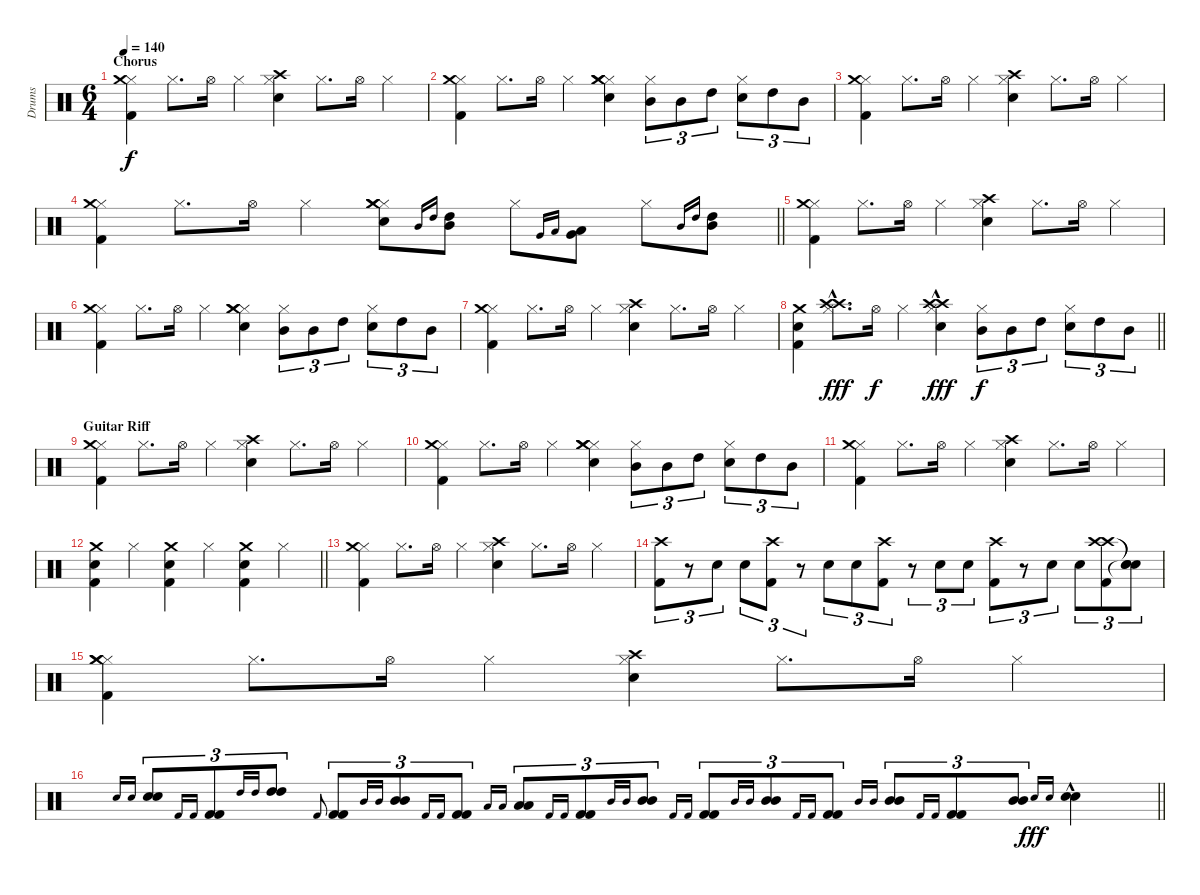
\track ("Drums" "Drums") {instrument percussion}
\staff {score}
\articulation defaults
\ts (6 4)
\section ("" "Chorus")
\tempo 140
\clef neutral
\ks c
("Hi-Hat (closed)" "Crash medium (hit)" "Kick (hit) 2").4{dy f volume 10} "Hi-Hat (closed)".8{d} "Hi-Hat (open)".16 "Hi-Hat (closed)".4 ("Hi-Hat (closed)" "Crash high (hit)" "Electric Snare (hit)").4 "Hi-Hat (closed)".8{d} "Hi-Hat (open)".16 "Hi-Hat (closed)".4 |
("Hi-Hat (closed)" "Crash medium (hit)" "Kick (hit) 2").4 "Hi-Hat (closed)".8{d} "Hi-Hat (open)".16 "Hi-Hat (closed)".4 ("Hi-Hat (closed)" "Crash medium (hit)" "Crash medium (hit)" "Electric Snare (hit)").4 ("Hi-Hat (closed)" "Mid Tom (hit)").8{tu (3 2)} "Mid Tom (hit)".8{tu (3 2)} "High Tom (hit)".8{tu (3 2)} ("Hi-Hat (closed)" "Electric Snare (hit)").8{tu (3 2)} "High Tom (hit)".8{tu (3 2)} "Mid Tom (hit)".8{tu (3 2)} |
("Hi-Hat (closed)" "Crash medium (hit)" "Kick (hit) 2").4 "Hi-Hat (closed)".8{d} "Hi-Hat (open)".16 "Hi-Hat (closed)".4 ("Hi-Hat (closed)" "Crash high (hit)" "Electric Snare (hit)").4 "Hi-Hat (closed)".8{d} "Hi-Hat (open)".16 "Hi-Hat (closed)".4 |
\barLineRight lightlight
("Hi-Hat (closed)" "Crash medium (hit)" "Kick (hit) 2").4 "Hi-Hat (closed)".8{d} "Hi-Hat (open)".16 "Hi-Hat (closed)".4 ("Hi-Hat (closed)" "Crash medium (hit)" "Crash medium (hit)" "Electric Snare (hit)").8 "Mid Tom (hit)".16{gr onbeat} "High Tom (hit)".16{gr onbeat} ("Mid Tom (hit)" "High Tom (hit)").8 "Hi-Hat (closed)".8 "Very Low Tom (hit)".16{gr onbeat} "Low Tom (hit)".16{gr onbeat} ("Very Low Tom (hit)" "Low Tom (hit)").8 "Hi-Hat (closed)".8 "Mid Tom (hit)".16{gr onbeat} "High Tom (hit)".16{gr onbeat} ("Mid Tom (hit)" "High Tom (hit)").8 |
("Hi-Hat (closed)" "Crash medium (hit)" "Kick (hit) 2").4 "Hi-Hat (closed)".8{d} "Hi-Hat (open)".16 "Hi-Hat (closed)".4 ("Hi-Hat (closed)" "Crash high (hit)" "Electric Snare (hit)").4 "Hi-Hat (closed)".8{d} "Hi-Hat (open)".16 "Hi-Hat (closed)".4 |
("Hi-Hat (closed)" "Crash medium (hit)" "Kick (hit) 2").4 "Hi-Hat (closed)".8{d} "Hi-Hat (open)".16 "Hi-Hat (closed)".4 ("Hi-Hat (closed)" "Crash medium (hit)" "Crash medium (hit)" "Electric Snare (hit)").4 ("Hi-Hat (closed)" "Mid Tom (hit)").8{tu (3 2)} "Mid Tom (hit)".8{tu (3 2)} "High Tom (hit)".8{tu (3 2)} ("Hi-Hat (closed)" "Electric Snare (hit)").8{tu (3 2)} "High Tom (hit)".8{tu (3 2)} "Mid Tom (hit)".8{tu (3 2)} |
("Hi-Hat (closed)" "Crash medium (hit)" "Kick (hit) 2").4 "Hi-Hat (closed)".8{d} "Hi-Hat (open)".16 "Hi-Hat (closed)".4 ("Hi-Hat (closed)" "Crash high (hit)" "Electric Snare (hit)").4 "Hi-Hat (closed)".8{d} "Hi-Hat (open)".16 "Hi-Hat (closed)".4 |
\barLineRight lightlight
("Crash medium (hit)" "Electric Snare (hit)" "Kick (hit) 2").4 ("Hi-Hat (closed)" "Crash high (hit)" "Crash high (hit)"{hac}).8{d dy fff} "Hi-Hat (open)".16{dy f} "Hi-Hat (closed)".4 ("Hi-Hat (closed)" "Crash high (hit)"{hac} "Crash high (hit)"{hac} "Electric Snare (hit)").4{dy fff} ("Hi-Hat (closed)" "Mid Tom (hit)").8{tu (3 2) dy f} "Mid Tom (hit)".8{tu (3 2)} "High Tom (hit)".8{tu (3 2)} ("Hi-Hat (closed)" "Electric Snare (hit)").8{tu (3 2)} "High Tom (hit)".8{tu (3 2)} "Mid Tom (hit)".8{tu (3 2)} |
\section ("" "Guitar Riff")
("Hi-Hat (closed)" "Crash medium (hit)" "Kick (hit) 2").4 "Hi-Hat (closed)".8{d} "Hi-Hat (open)".16 "Hi-Hat (closed)".4 ("Hi-Hat (closed)" "Crash high (hit)" "Electric Snare (hit)").4 "Hi-Hat (closed)".8{d} "Hi-Hat (open)".16 "Hi-Hat (closed)".4 |
("Hi-Hat (closed)" "Crash medium (hit)" "Kick (hit) 2").4 "Hi-Hat (closed)".8{d} "Hi-Hat (open)".16 "Hi-Hat (closed)".4 ("Hi-Hat (closed)" "Crash medium (hit)" "Crash medium (hit)" "Electric Snare (hit)").4 ("Hi-Hat (closed)" "Mid Tom (hit)").8{tu (3 2)} "Mid Tom (hit)".8{tu (3 2)} "High Tom (hit)".8{tu (3 2)} ("Hi-Hat (closed)" "Electric Snare (hit)").8{tu (3 2)} "High Tom (hit)".8{tu (3 2)} "Mid Tom (hit)".8{tu (3 2)} |
("Hi-Hat (closed)" "Crash medium (hit)" "Kick (hit) 2").4 "Hi-Hat (closed)".8{d} "Hi-Hat (open)".16 "Hi-Hat (closed)".4 ("Hi-Hat (closed)" "Crash high (hit)" "Electric Snare (hit)").4 "Hi-Hat (closed)".8{d} "Hi-Hat (open)".16 "Hi-Hat (closed)".4 |
\barLineRight lightlight
("Crash medium (hit)" "Electric Snare (hit)" "Kick (hit) 2").4 "Hi-Hat (closed)".4 ("Crash medium (hit)" "Electric Snare (hit)" "Kick (hit) 2").4 "Hi-Hat (closed)".4 ("Crash medium (hit)" "Electric Snare (hit)" "Kick (hit) 2").4 "Hi-Hat (closed)".4 |
("Hi-Hat (closed)" "Crash medium (hit)" "Kick (hit) 2").4 "Hi-Hat (closed)".8{d} "Hi-Hat (open)".16 "Hi-Hat (closed)".4 ("Hi-Hat (closed)" "Crash high (hit)" "Electric Snare (hit)").4 "Hi-Hat (closed)".8{d} "Hi-Hat (open)".16 "Hi-Hat (closed)".4 |
("Crash high (hit)" "Kick (hit) 2").8{tu (3 2)} r.8{tu (3 2)} "Electric Snare (hit)".8{tu (3 2)} "Electric Snare (hit)".8{tu (3 2)} ("Crash high (hit)" "Kick (hit) 2").8{tu (3 2)} r.8{tu (3 2)} "Electric Snare (hit)".8{tu (3 2)} "Electric Snare (hit)".8{tu (3 2)} ("Crash high (hit)" "Kick (hit) 2").8{tu (3 2)} r.8{tu (3 2)} "Electric Snare (hit)".8{tu (3 2)} "Electric Snare (hit)".8{tu (3 2)} ("Crash high (hit)" "Kick (hit) 2").8{tu (3 2)} r.8{tu (3 2)} "Electric Snare (hit)".8{tu (3 2)} "Electric Snare (hit)".8{tu (3 2)} ("Crash high (hit)" "Crash high (hit)" "Kick (hit) 2").8{tu (3 2)} ("Snare (hit)"{t} "Snare (hit)"{t} "Snare (hit)"{t}).8{tu (3 2)} |
("Hi-Hat (closed)" "Crash medium (hit)" "Crash medium (hit)" "Kick (hit) 2").4 "Hi-Hat (closed)".8{d} "Hi-Hat (open)".16 "Hi-Hat (closed)".4 ("Hi-Hat (closed)" "Crash high (hit)" "Electric Snare (hit)").4 "Hi-Hat (closed)".8{d} "Hi-Hat (open)".16 "Hi-Hat (closed)".4 |
\barLineRight lightlight "Electric Snare (hit)".16{gr onbeat} "Electric Snare (hit)".16{gr onbeat}
("Electric Snare (hit)" "Electric Snare (hit)").8{tu (3 2)} "Kick (hit) 2".16{gr onbeat} "Kick (hit) 2".16{gr onbeat} ("Kick (hit) 2" "Kick (hit) 2").8{tu (3 2)} "High Tom (hit)".16{gr onbeat} "High Tom (hit)".16{gr onbeat} ("High Tom (hit)" "High Tom (hit)").8{tu (3 2)} "Kick (hit) 2".8{gr onbeat} ("Kick (hit) 2" "Kick (hit) 2").8{tu (3 2)} "Mid Tom (hit)".16{gr onbeat} "Mid Tom (hit)".16{gr onbeat} ("Mid Tom (hit)" "Mid Tom (hit)").8{tu (3 2)} "Kick (hit) 2".16{gr onbeat} "Kick (hit) 2".16{gr onbeat} ("Kick (hit) 2" "Kick (hit) 2").8{tu (3 2)} "Low Tom (hit)".16{gr onbeat} "Low Tom (hit)".16{gr onbeat} ("Low Tom (hit)" "Low Tom (hit)").8{tu (3 2)} "Kick (hit) 2".16{gr onbeat} "Kick (hit) 2".16{gr onbeat} ("Kick (hit) 2" "Kick (hit) 2").8{tu (3 2)} "Mid Tom (hit)".16{gr onbeat} "Mid Tom (hit)".16{gr onbeat} ("Mid Tom (hit)" "Mid Tom (hit)").8{tu (3 2)} "Kick (hit) 2".16{gr onbeat} "Kick (hit) 2".16{gr onbeat} ("Kick (hit) 2" "Kick (hit) 2").8{tu (3 2)} "Mid Tom (hit)".16{gr onbeat} "Mid Tom (hit)".16{gr onbeat} ("Mid Tom (hit)" "Mid Tom (hit)").8{tu (3 2)} "Kick (hit) 2".16{gr onbeat} "Kick (hit) 2".16{gr onbeat} ("Kick (hit) 2" "Kick (hit) 2").8{tu (3 2)} "Mid Tom (hit)".16{gr onbeat} "Mid Tom (hit)".16{gr onbeat} ("Mid Tom (hit)" "Mid Tom (hit)").8{tu (3 2)} "Kick (hit) 2".16{gr onbeat} "Kick (hit) 2".16{gr onbeat} ("Kick (hit) 2" "Kick (hit) 2").8{tu (3 2)} ("Mid Tom (hit)" "Mid Tom (hit)").8{tu (3 2)} "Electric Snare (hit)".16{gr onbeat dy fff} "Electric Snare (hit)".16{gr onbeat} ("Electric Snare (hit)"{hac} "Electric Snare (hit)"{hac}).4
